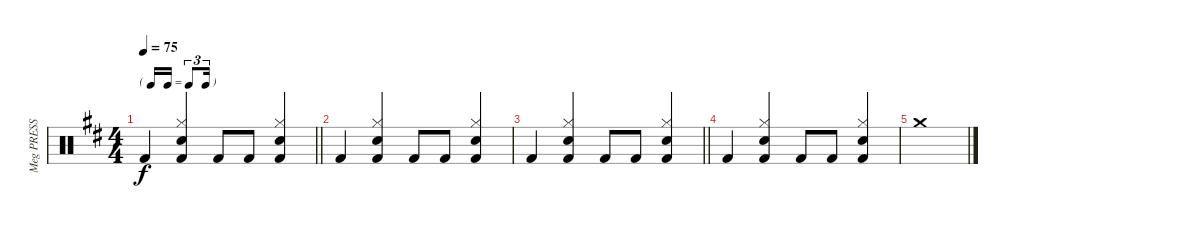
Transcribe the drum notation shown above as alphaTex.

\track ("Meg PRESS F5!!" "Meg PRESS ") {instrument percussion}
\staff {score}
\articulation defaults
\ts (4 4)
\tf triplet16th
\tempo 75
\clef neutral
\barLineRight lightlight
\ks d "Kick (hit) 2".4{dy f}
("Kick (hit) 2" "Hi-Hat (closed)" "Snare (hit) 2").4 "Kick (hit) 2".8 "Kick (hit) 2".8 ("Kick (hit) 2" "Hi-Hat (closed)" "Snare (hit) 2").4 |
"Kick (hit) 2".4 ("Kick (hit) 2" "Hi-Hat (closed)" "Snare (hit) 2").4 "Kick (hit) 2".8 "Kick (hit) 2".8 ("Kick (hit) 2" "Hi-Hat (closed)" "Snare (hit) 2").4 |
\barLineRight lightlight "Kick (hit) 2".4
("Kick (hit) 2" "Hi-Hat (closed)" "Snare (hit) 2").4 "Kick (hit) 2".8 "Kick (hit) 2".8 ("Kick (hit) 2" "Hi-Hat (closed)" "Snare (hit) 2").4 |
"Kick (hit) 2".4 ("Kick (hit) 2" "Hi-Hat (closed)" "Snare (hit) 2").4 "Kick (hit) 2".8 "Kick (hit) 2".8 ("Kick (hit) 2" "Hi-Hat (closed)" "Snare (hit) 2").4 |
"Crash medium (hit)".1
